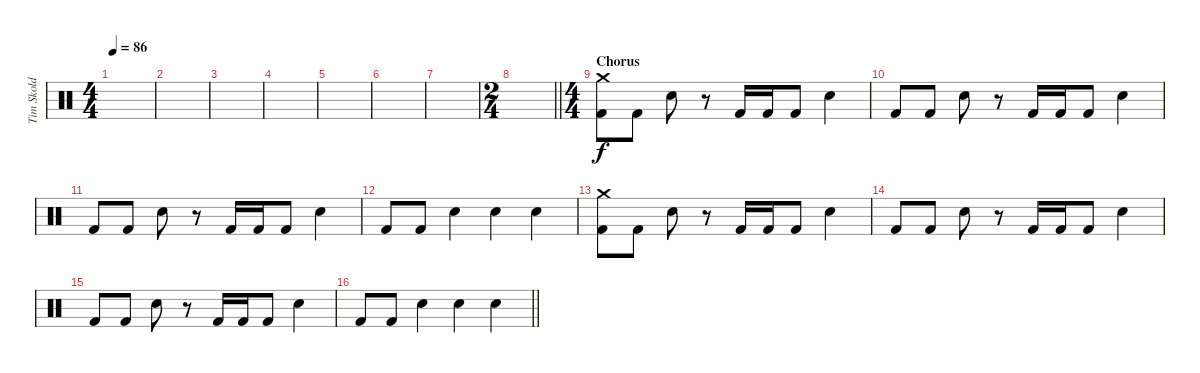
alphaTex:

\track ("Tim Skold V" "Tim Skold ") {instrument percussion}
\staff {score}
\articulation defaults
\ts (4 4)
\tempo 86
\clef neutral
\ks c
|
|
|
|
|
|
|
\ts (2 4)
\barLineRight lightlight
|
\ts (4 4)
\section ("" "Chorus")
("Crash medium (hit)" "Kick (hit) 2").8 "Kick (hit) 2".8 "Electric Snare (hit)".8 r.8 "Kick (hit) 2".16 "Kick (hit) 2".16 "Kick (hit) 2".8 "Electric Snare (hit)".4 |
"Kick (hit) 2".8 "Kick (hit) 2".8 "Electric Snare (hit)".8 r.8 "Kick (hit) 2".16 "Kick (hit) 2".16 "Kick (hit) 2".8 "Electric Snare (hit)".4 |
"Kick (hit) 2".8 "Kick (hit) 2".8 "Electric Snare (hit)".8 r.8 "Kick (hit) 2".16 "Kick (hit) 2".16 "Kick (hit) 2".8 "Electric Snare (hit)".4 |
"Kick (hit) 2".8 "Kick (hit) 2".8 "Electric Snare (hit)".4 "Electric Snare (hit)".4 "Electric Snare (hit)".4 |
("Crash medium (hit)" "Kick (hit) 2").8 "Kick (hit) 2".8 "Electric Snare (hit)".8 r.8 "Kick (hit) 2".16 "Kick (hit) 2".16 "Kick (hit) 2".8 "Electric Snare (hit)".4 |
"Kick (hit) 2".8 "Kick (hit) 2".8 "Electric Snare (hit)".8 r.8 "Kick (hit) 2".16 "Kick (hit) 2".16 "Kick (hit) 2".8 "Electric Snare (hit)".4 |
"Kick (hit) 2".8 "Kick (hit) 2".8 "Electric Snare (hit)".8 r.8 "Kick (hit) 2".16 "Kick (hit) 2".16 "Kick (hit) 2".8 "Electric Snare (hit)".4 |
\barLineRight lightlight "Kick (hit) 2".8 "Kick (hit) 2".8 "Electric Snare (hit)".4 "Electric Snare (hit)".4 "Electric Snare (hit)".4
